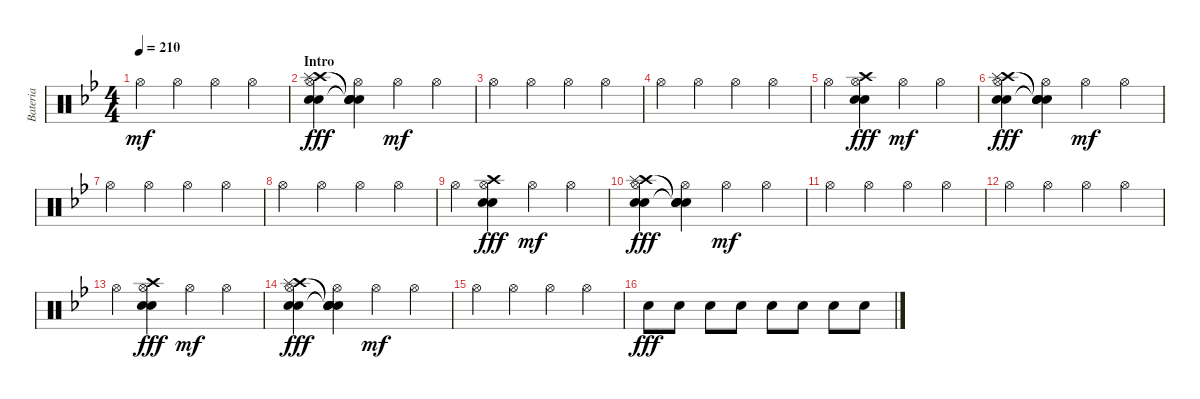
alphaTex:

\track ("Bateria" "Bateria") {instrument percussion}
\staff {score}
\articulation defaults
\ts (4 4)
\tempo 210
\clef neutral
\ks gminor "Hi-Hat (open)".4{dy mf} "Hi-Hat (open)".4 "Hi-Hat (open)".4 "Hi-Hat (open)".4
|
\section ("" "Intro")
("Hi-Hat (open)" "Crash high (hit)" "Splash (hit)" "Electric Snare (hit)" "Snare (hit) 2").4{dy fff} ("Hi-Hat (open)" "Snare (hit)"{t} "Snare (hit)"{t} "Snare (hit)"{t} "Snare (hit)"{t}).4 "Hi-Hat (open)".4{dy mf} "Hi-Hat (open)".4 |
"Hi-Hat (open)".4 "Hi-Hat (open)".4 "Hi-Hat (open)".4 "Hi-Hat (open)".4 |
"Hi-Hat (open)".4 "Hi-Hat (open)".4 "Hi-Hat (open)".4 "Hi-Hat (open)".4 |
"Hi-Hat (open)".4 ("Hi-Hat (open)" "Crash high (hit)" "Electric Snare (hit)" "Snare (hit) 2").4{dy fff} "Hi-Hat (open)".4{dy mf} "Hi-Hat (open)".4 |
("Hi-Hat (open)" "Crash high (hit)" "Splash (hit)" "Electric Snare (hit)" "Snare (hit) 2").4{dy fff} ("Hi-Hat (open)" "Snare (hit)"{t} "Snare (hit)"{t} "Snare (hit)"{t} "Snare (hit)"{t}).4 "Hi-Hat (open)".4{dy mf} "Hi-Hat (open)".4 |
"Hi-Hat (open)".4 "Hi-Hat (open)".4 "Hi-Hat (open)".4 "Hi-Hat (open)".4 |
"Hi-Hat (open)".4 "Hi-Hat (open)".4 "Hi-Hat (open)".4 "Hi-Hat (open)".4 |
"Hi-Hat (open)".4 ("Hi-Hat (open)" "Crash high (hit)" "Electric Snare (hit)" "Snare (hit) 2").4{dy fff} "Hi-Hat (open)".4{dy mf} "Hi-Hat (open)".4 |
("Hi-Hat (open)" "Crash high (hit)" "Splash (hit)" "Electric Snare (hit)" "Snare (hit) 2").4{dy fff} ("Hi-Hat (open)" "Snare (hit)"{t} "Snare (hit)"{t} "Snare (hit)"{t} "Snare (hit)"{t}).4 "Hi-Hat (open)".4{dy mf} "Hi-Hat (open)".4 |
"Hi-Hat (open)".4 "Hi-Hat (open)".4 "Hi-Hat (open)".4 "Hi-Hat (open)".4 |
"Hi-Hat (open)".4 "Hi-Hat (open)".4 "Hi-Hat (open)".4 "Hi-Hat (open)".4 |
"Hi-Hat (open)".4 ("Hi-Hat (open)" "Crash high (hit)" "Electric Snare (hit)" "Snare (hit) 2").4{dy fff} "Hi-Hat (open)".4{dy mf} "Hi-Hat (open)".4 |
("Hi-Hat (open)" "Crash high (hit)" "Splash (hit)" "Electric Snare (hit)" "Snare (hit) 2").4{dy fff} ("Hi-Hat (open)" "Snare (hit)"{t} "Snare (hit)"{t} "Snare (hit)"{t} "Snare (hit)"{t}).4 "Hi-Hat (open)".4{dy mf} "Hi-Hat (open)".4 |
"Hi-Hat (open)".4 "Hi-Hat (open)".4 "Hi-Hat (open)".4 "Hi-Hat (open)".4 |
"Snare (hit) 2".8{dy fff} "Electric Snare (hit)".8 "Electric Snare (hit)".8 "Snare (hit) 2".8 "Electric Snare (hit)".8 "Electric Snare (hit)".8 "Snare (hit) 2".8 "Electric Snare (hit)".8
